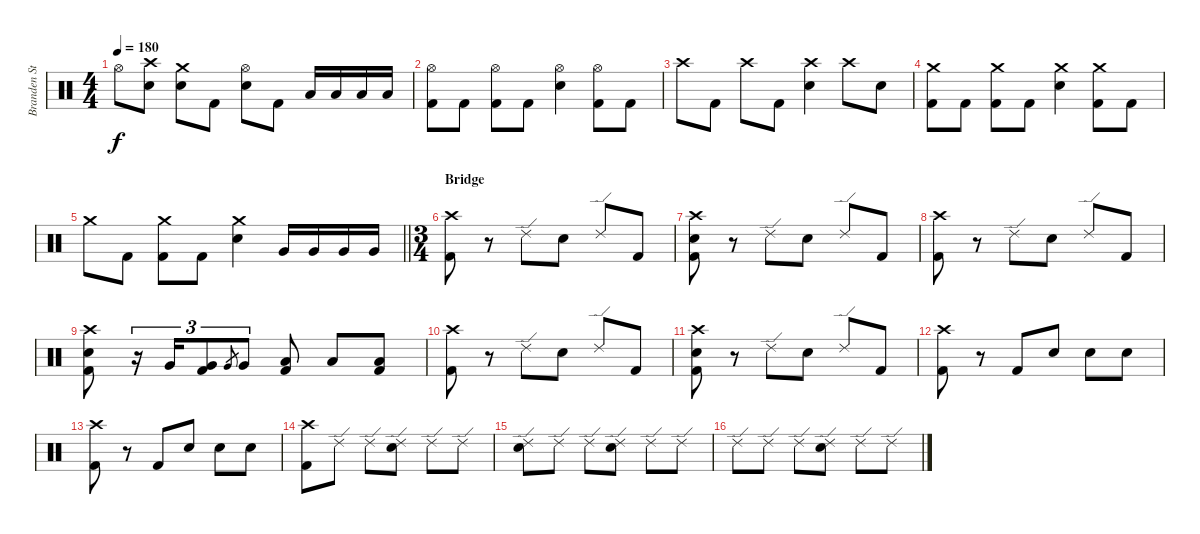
\track ("Branden Steineckert" "Branden St") {instrument percussion}
\staff {score}
\articulation defaults
\ts (4 4)
\tempo 180
\clef neutral
\ks c "Hi-Hat (open)".8{dy f}
("Crash high (hit)" "Electric Snare (hit)").8 ("Crash medium (hit)" "Electric Snare (hit)").8 "Kick (hit) 2".8 ("Hi-Hat (open)" "Electric Snare (hit)").8 "Kick (hit) 2".8 "Low Floor Tom (hit)".16 "Low Floor Tom (hit)".16 "Low Floor Tom (hit)".16 "Low Floor Tom (hit)".16 |
("Hi-Hat (open)" "Kick (hit) 2").8 "Kick (hit) 2".8 ("Hi-Hat (open)" "Kick (hit) 2").8 "Kick (hit) 2".8 ("Hi-Hat (open)" "Electric Snare (hit)").4 ("Hi-Hat (open)" "Kick (hit) 2").8 "Kick (hit) 2".8 |
"Crash high (hit)".8 "Kick (hit) 2".8 "Crash high (hit)".8 "Kick (hit) 2".8 ("Crash high (hit)" "Electric Snare (hit)").4 "Crash high (hit)".8 "Electric Snare (hit)".8 |
("Crash medium (hit)" "Kick (hit) 2").8 "Kick (hit) 2".8 ("Crash medium (hit)" "Kick (hit) 2").8 "Kick (hit) 2".8 ("Crash medium (hit)" "Electric Snare (hit)").4 ("Crash medium (hit)" "Kick (hit) 2").8 "Kick (hit) 2".8 |
\barLineRight lightlight "Crash medium (hit)".8 "Kick (hit) 2".8
("Crash medium (hit)" "Kick (hit) 2").8 "Kick (hit) 2".8 ("Crash medium (hit)" "Electric Snare (hit)").4 "Very Low Tom (hit)".16 "Very Low Tom (hit)".16 "Very Low Tom (hit)".16 "Very Low Tom (hit)".16 |
\ts (3 4)
\section ("" "Bridge")
("Crash high (hit)" "Kick (hit) 2").8 r.8 "Ride (edge) 2".8 "Electric Snare (hit)".8 "Ride (edge) 2".8 "Kick (hit) 2".8 |
("Crash high (hit)" "Electric Snare (hit)" "Kick (hit) 2").8 r.8 "Ride (edge) 2".8 "Electric Snare (hit)".8 "Ride (edge) 2".8 "Kick (hit) 2".8 |
("Crash high (hit)" "Kick (hit) 2").8 r.8 "Ride (edge) 2".8 "Electric Snare (hit)".8 "Ride (edge) 2".8 "Kick (hit) 2".8 |
("Crash high (hit)" "Electric Snare (hit)" "Kick (hit) 2").8 r.16{tu (3 2)} "Very Low Tom (hit)".16{tu (3 2)} ("Very Low Tom (hit)" "Kick (hit) 2").8{tu (3 2)} "Very Low Tom (hit)".8{gr} "Very Low Tom (hit)".8{tu (3 2)} ("Low Floor Tom (hit)" "Kick (hit) 2").8 "Low Floor Tom (hit)".8 ("Low Floor Tom (hit)" "Kick (hit) 2").8 |
("Crash high (hit)" "Kick (hit) 2").8 r.8 "Ride (edge) 2".8 "Electric Snare (hit)".8 "Ride (edge) 2".8 "Kick (hit) 2".8 |
("Crash high (hit)" "Electric Snare (hit)" "Kick (hit) 2").8 r.8 "Ride (edge) 2".8 "Electric Snare (hit)".8 "Ride (edge) 2".8 "Kick (hit) 2".8 |
("Crash high (hit)" "Kick (hit) 2").8 r.8 "Kick (hit) 2".8 "Electric Snare (hit)".8 "Electric Snare (hit)".8 "Electric Snare (hit)".8 |
("Crash high (hit)" "Kick (hit) 2").8 r.8 "Kick (hit) 2".8 "Electric Snare (hit)".8 "Electric Snare (hit)".8 "Electric Snare (hit)".8 |
("Crash high (hit)" "Kick (hit) 2").8 "Ride (edge) 2".8 "Ride (edge) 2".8 ("Ride (edge) 2" "Electric Snare (hit)").8 "Ride (edge) 2".8 "Ride (edge) 2".8 |
("Ride (edge) 2" "Electric Snare (hit)").8 "Ride (edge) 2".8 "Ride (edge) 2".8 ("Ride (edge) 2" "Electric Snare (hit)").8 "Ride (edge) 2".8 "Ride (edge) 2".8 |
"Ride (edge) 2".8 "Ride (edge) 2".8 "Ride (edge) 2".8 ("Ride (edge) 2" "Electric Snare (hit)").8 "Ride (edge) 2".8 "Ride (edge) 2".8
